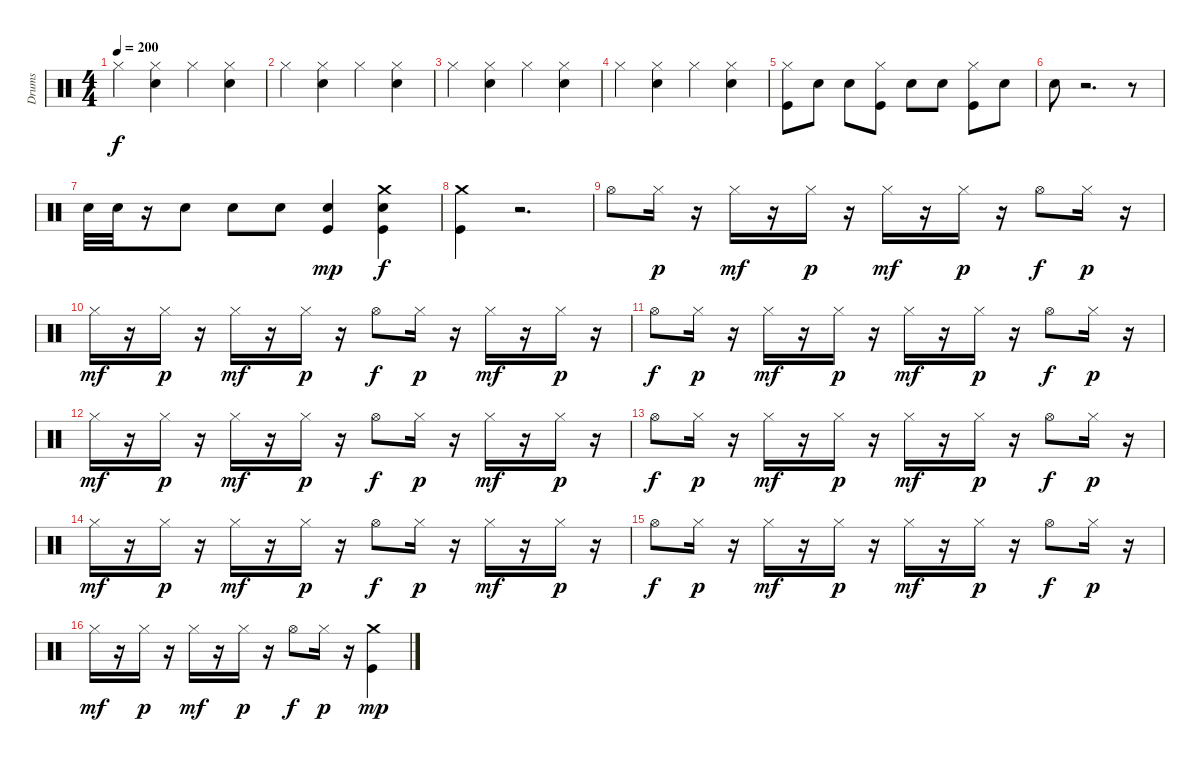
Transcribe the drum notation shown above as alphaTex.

\track ("Drums" "Drums") {instrument percussion}
\staff {score}
\articulation defaults
\ts (4 4)
\tempo 200
\clef neutral
\ks c "Hi-Hat (closed)".4{dy f}
("Snare (hit) 2" "Hi-Hat (closed)").4 "Hi-Hat (closed)".4 ("Snare (hit) 2" "Hi-Hat (closed)").4 |
"Hi-Hat (closed)".4 ("Snare (hit) 2" "Hi-Hat (closed)").4 "Hi-Hat (closed)".4 ("Snare (hit) 2" "Hi-Hat (closed)").4 |
"Hi-Hat (closed)".4 ("Snare (hit) 2" "Hi-Hat (closed)").4 "Hi-Hat (closed)".4 ("Snare (hit) 2" "Hi-Hat (closed)").4 |
"Hi-Hat (closed)".4 ("Snare (hit) 2" "Hi-Hat (closed)").4 "Hi-Hat (closed)".4 ("Snare (hit) 2" "Hi-Hat (closed)").4 |
("Hi-Hat (closed)" "Kick (hit)").8 "Electric Snare (hit)".8 "Electric Snare (hit)".8 ("Hi-Hat (closed)" "Kick (hit)").8 "Electric Snare (hit)".8 "Electric Snare (hit)".8 ("Hi-Hat (closed)" "Kick (hit)").8 "Electric Snare (hit)".8 |
"Electric Snare (hit)".8 r.2{d} r.8 |
"Electric Snare (hit)".32{volume 11 balance 8} "Electric Snare (hit)".32 r.16 "Electric Snare (hit)".8 "Electric Snare (hit)".8 "Electric Snare (hit)".8 ("Kick (hit)" "Electric Snare (hit)").4{dy mp} ("Kick (hit)" "Crash medium (hit)" "Electric Snare (hit)").4{dy f} |
("Kick (hit)" "Crash medium (hit)").4 r.2{d} |
"Hi-Hat (open)".8 "Hi-Hat (closed)".16{dy p} r.16 "Hi-Hat (closed)".16{dy mf} r.16 "Hi-Hat (closed)".16{dy p} r.16 "Hi-Hat (closed)".16{dy mf} r.16 "Hi-Hat (closed)".16{dy p} r.16 "Hi-Hat (open)".8{dy f} "Hi-Hat (closed)".16{dy p} r.16 |
"Hi-Hat (closed)".16{dy mf} r.16 "Hi-Hat (closed)".16{dy p} r.16 "Hi-Hat (closed)".16{dy mf} r.16 "Hi-Hat (closed)".16{dy p} r.16 "Hi-Hat (open)".8{dy f} "Hi-Hat (closed)".16{dy p} r.16 "Hi-Hat (closed)".16{dy mf} r.16 "Hi-Hat (closed)".16{dy p} r.16 |
"Hi-Hat (open)".8{dy f} "Hi-Hat (closed)".16{dy p} r.16 "Hi-Hat (closed)".16{dy mf} r.16 "Hi-Hat (closed)".16{dy p} r.16 "Hi-Hat (closed)".16{dy mf} r.16 "Hi-Hat (closed)".16{dy p} r.16 "Hi-Hat (open)".8{dy f} "Hi-Hat (closed)".16{dy p} r.16 |
"Hi-Hat (closed)".16{dy mf} r.16 "Hi-Hat (closed)".16{dy p} r.16 "Hi-Hat (closed)".16{dy mf} r.16 "Hi-Hat (closed)".16{dy p} r.16 "Hi-Hat (open)".8{dy f} "Hi-Hat (closed)".16{dy p} r.16 "Hi-Hat (closed)".16{dy mf} r.16 "Hi-Hat (closed)".16{dy p} r.16 |
"Hi-Hat (open)".8{dy f} "Hi-Hat (closed)".16{dy p} r.16 "Hi-Hat (closed)".16{dy mf} r.16 "Hi-Hat (closed)".16{dy p} r.16 "Hi-Hat (closed)".16{dy mf} r.16 "Hi-Hat (closed)".16{dy p} r.16 "Hi-Hat (open)".8{dy f} "Hi-Hat (closed)".16{dy p} r.16 |
"Hi-Hat (closed)".16{dy mf} r.16 "Hi-Hat (closed)".16{dy p} r.16 "Hi-Hat (closed)".16{dy mf} r.16 "Hi-Hat (closed)".16{dy p} r.16 "Hi-Hat (open)".8{dy f} "Hi-Hat (closed)".16{dy p} r.16 "Hi-Hat (closed)".16{dy mf} r.16 "Hi-Hat (closed)".16{dy p} r.16 |
"Hi-Hat (open)".8{dy f} "Hi-Hat (closed)".16{dy p} r.16 "Hi-Hat (closed)".16{dy mf} r.16 "Hi-Hat (closed)".16{dy p} r.16 "Hi-Hat (closed)".16{dy mf} r.16 "Hi-Hat (closed)".16{dy p} r.16 "Hi-Hat (open)".8{dy f} "Hi-Hat (closed)".16{dy p} r.16 |
"Hi-Hat (closed)".16{dy mf} r.16 "Hi-Hat (closed)".16{dy p} r.16 "Hi-Hat (closed)".16{dy mf} r.16 "Hi-Hat (closed)".16{dy p} r.16 "Hi-Hat (open)".8{dy f} "Hi-Hat (closed)".16{dy p} r.16 ("Crash medium (hit)" "Kick (hit)").4{dy mp}
